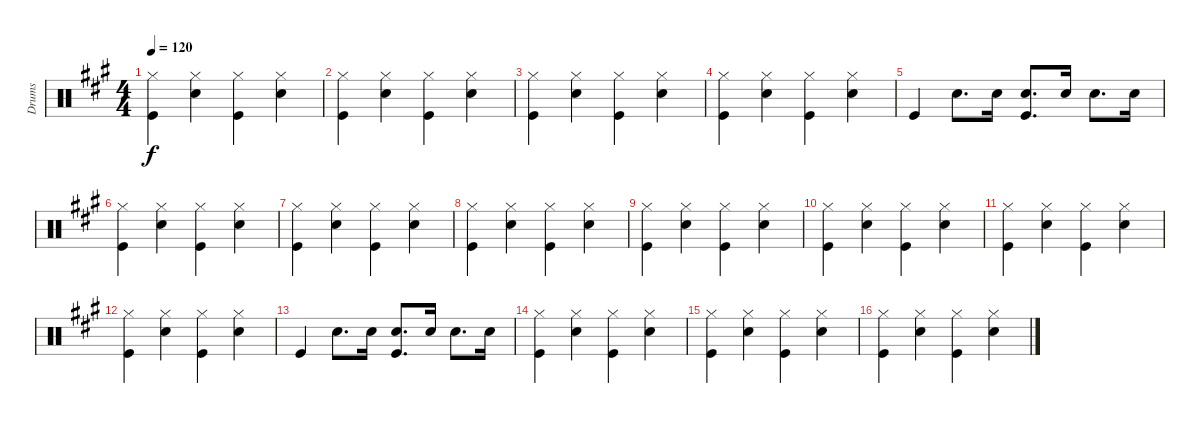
\track ("Drums" "Drums") {instrument percussion}
\staff {score}
\articulation defaults
\ts (4 4)
\tempo 120
\clef neutral
\ks a
("Kick (hit)" "Hi-Hat (closed)").4{dy f} ("Snare (hit) 2" "Hi-Hat (closed)").4 ("Kick (hit)" "Hi-Hat (closed)").4 ("Snare (hit) 2" "Hi-Hat (closed)").4 |
("Kick (hit)" "Hi-Hat (closed)").4 ("Snare (hit) 2" "Hi-Hat (closed)").4 ("Kick (hit)" "Hi-Hat (closed)").4 ("Snare (hit) 2" "Hi-Hat (closed)").4 |
("Kick (hit)" "Hi-Hat (closed)").4 ("Snare (hit) 2" "Hi-Hat (closed)").4 ("Kick (hit)" "Hi-Hat (closed)").4 ("Snare (hit) 2" "Hi-Hat (closed)").4 |
("Kick (hit)" "Hi-Hat (closed)").4 ("Snare (hit) 2" "Hi-Hat (closed)").4 ("Kick (hit)" "Hi-Hat (closed)").4 ("Snare (hit) 2" "Hi-Hat (closed)").4 |
"Kick (hit)".4 "Snare (hit) 2".8{d} "Snare (hit) 2".16 ("Snare (hit) 2" "Kick (hit)").8{d} "Snare (hit) 2".16 "Snare (hit) 2".8{d} "Snare (hit) 2".16 |
("Kick (hit)" "Hi-Hat (closed)").4 ("Snare (hit) 2" "Hi-Hat (closed)").4 ("Kick (hit)" "Hi-Hat (closed)").4 ("Snare (hit) 2" "Hi-Hat (closed)").4 |
("Kick (hit)" "Hi-Hat (closed)").4 ("Snare (hit) 2" "Hi-Hat (closed)").4 ("Kick (hit)" "Hi-Hat (closed)").4 ("Snare (hit) 2" "Hi-Hat (closed)").4 |
("Kick (hit)" "Hi-Hat (closed)").4 ("Snare (hit) 2" "Hi-Hat (closed)").4 ("Kick (hit)" "Hi-Hat (closed)").4 ("Snare (hit) 2" "Hi-Hat (closed)").4 |
("Kick (hit)" "Hi-Hat (closed)").4 ("Snare (hit) 2" "Hi-Hat (closed)").4 ("Kick (hit)" "Hi-Hat (closed)").4 ("Snare (hit) 2" "Hi-Hat (closed)").4 |
("Kick (hit)" "Hi-Hat (closed)").4 ("Snare (hit) 2" "Hi-Hat (closed)").4 ("Kick (hit)" "Hi-Hat (closed)").4 ("Snare (hit) 2" "Hi-Hat (closed)").4 |
("Kick (hit)" "Hi-Hat (closed)").4 ("Snare (hit) 2" "Hi-Hat (closed)").4 ("Kick (hit)" "Hi-Hat (closed)").4 ("Snare (hit) 2" "Hi-Hat (closed)").4 |
("Kick (hit)" "Hi-Hat (closed)").4 ("Snare (hit) 2" "Hi-Hat (closed)").4 ("Kick (hit)" "Hi-Hat (closed)").4 ("Snare (hit) 2" "Hi-Hat (closed)").4 |
"Kick (hit)".4 "Snare (hit) 2".8{d} "Snare (hit) 2".16 ("Snare (hit) 2" "Kick (hit)").8{d} "Snare (hit) 2".16 "Snare (hit) 2".8{d} "Snare (hit) 2".16 |
("Kick (hit)" "Hi-Hat (closed)").4 ("Snare (hit) 2" "Hi-Hat (closed)").4 ("Kick (hit)" "Hi-Hat (closed)").4 ("Snare (hit) 2" "Hi-Hat (closed)").4 |
("Kick (hit)" "Hi-Hat (closed)").4 ("Snare (hit) 2" "Hi-Hat (closed)").4 ("Kick (hit)" "Hi-Hat (closed)").4 ("Snare (hit) 2" "Hi-Hat (closed)").4 |
("Kick (hit)" "Hi-Hat (closed)").4 ("Snare (hit) 2" "Hi-Hat (closed)").4 ("Kick (hit)" "Hi-Hat (closed)").4 ("Snare (hit) 2" "Hi-Hat (closed)").4
